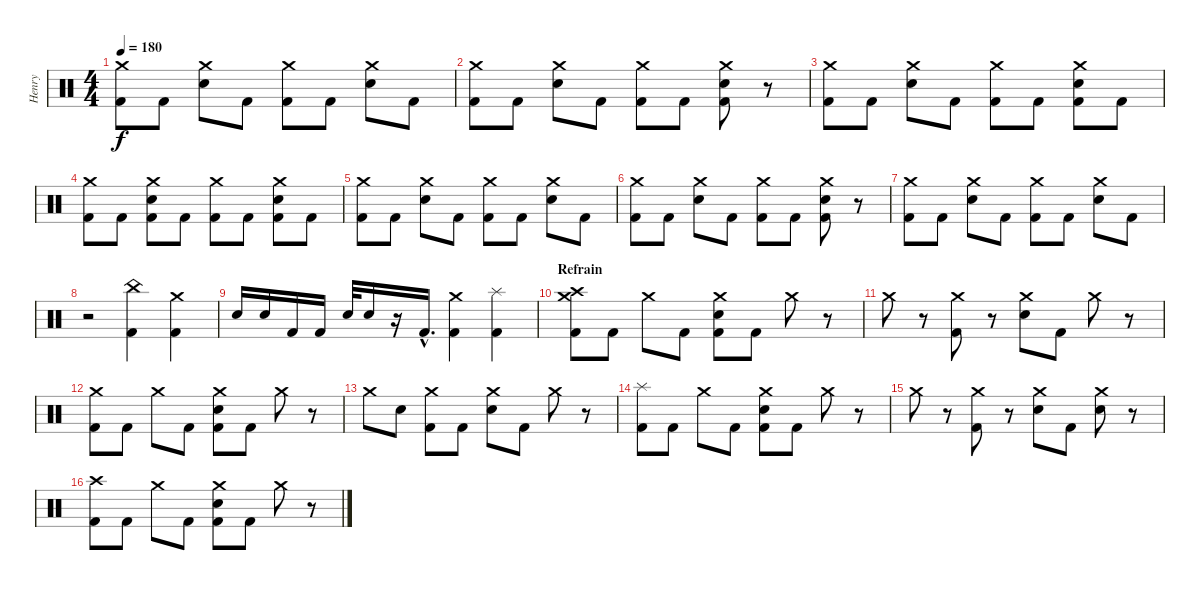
\track ("Henry" "Henry") {instrument percussion}
\staff {score}
\articulation defaults
\ts (4 4)
\tempo 180
\clef neutral
\ks c
("Crash medium (hit)" "Kick (hit) 2").8{dy f} "Kick (hit) 2".8 ("Crash medium (hit)" "Snare (hit) 2").8 "Kick (hit) 2".8 ("Crash medium (hit)" "Kick (hit) 2").8 "Kick (hit) 2".8 ("Crash medium (hit)" "Snare (hit) 2").8 "Kick (hit) 2".8 |
("Crash medium (hit)" "Kick (hit) 2").8 "Kick (hit) 2".8 ("Crash medium (hit)" "Snare (hit) 2").8 "Kick (hit) 2".8 ("Crash medium (hit)" "Kick (hit) 2").8 "Kick (hit) 2".8 ("Crash medium (hit)" "Snare (hit) 2" "Kick (hit) 2").8 r.8 |
("Crash medium (hit)" "Kick (hit) 2").8 "Kick (hit) 2".8 ("Crash medium (hit)" "Snare (hit) 2").8 "Kick (hit) 2".8 ("Crash medium (hit)" "Kick (hit) 2").8 "Kick (hit) 2".8 ("Crash medium (hit)" "Snare (hit) 2" "Kick (hit) 2").8 "Kick (hit) 2".8 |
("Crash medium (hit)" "Kick (hit) 2").8 "Kick (hit) 2".8 ("Crash medium (hit)" "Snare (hit) 2" "Kick (hit) 2").8 "Kick (hit) 2".8 ("Crash medium (hit)" "Kick (hit) 2").8 "Kick (hit) 2".8 ("Crash medium (hit)" "Snare (hit) 2" "Kick (hit) 2").8 "Kick (hit) 2".8 |
("Crash medium (hit)" "Kick (hit) 2").8 "Kick (hit) 2".8 ("Crash medium (hit)" "Snare (hit) 2").8 "Kick (hit) 2".8 ("Crash medium (hit)" "Kick (hit) 2").8 "Kick (hit) 2".8 ("Crash medium (hit)" "Snare (hit) 2").8 "Kick (hit) 2".8 |
("Crash medium (hit)" "Kick (hit) 2").8 "Kick (hit) 2".8 ("Crash medium (hit)" "Snare (hit) 2").8 "Kick (hit) 2".8 ("Crash medium (hit)" "Kick (hit) 2").8 "Kick (hit) 2".8 ("Crash medium (hit)" "Snare (hit) 2" "Kick (hit) 2").8 r.8 |
("Crash medium (hit)" "Kick (hit) 2").8 "Kick (hit) 2".8 ("Crash medium (hit)" "Snare (hit) 2").8 "Kick (hit) 2".8 ("Crash medium (hit)" "Kick (hit) 2").8 "Kick (hit) 2".8 ("Crash medium (hit)" "Snare (hit) 2").8 "Kick (hit) 2".8 |
r.2 ("China (hit)" "Kick (hit) 2").4 ("Crash medium (hit)" "Kick (hit) 2").4 |
"Snare (hit) 2".16 "Snare (hit) 2".16 "Kick (hit) 2".16 "Kick (hit) 2".16 "Snare (hit) 2".32 "Snare (hit) 2".16 r.16 "Kick (hit) 2"{hac}.16{d} ("Crash medium (hit)" "Kick (hit) 2").4 ("Splash (hit)" "Kick (hit) 2").4 |
\section ("" "Refrain")
("Crash high (hit)" "Crash medium (hit)" "Kick (hit) 2").8 "Kick (hit) 2".8 "Crash medium (hit)".8 "Kick (hit) 2".8 ("Crash medium (hit)" "Snare (hit) 2" "Kick (hit) 2").8 "Kick (hit) 2".8 "Crash medium (hit)".8 r.8 |
"Crash medium (hit)".8 r.8 ("Crash medium (hit)" "Kick (hit) 2").8 r.8 ("Crash medium (hit)" "Snare (hit) 2").8 "Kick (hit) 2".8 "Crash medium (hit)".8 r.8 |
("Crash medium (hit)" "Kick (hit) 2").8 "Kick (hit) 2".8 "Crash medium (hit)".8 "Kick (hit) 2".8 ("Crash medium (hit)" "Snare (hit) 2" "Kick (hit) 2").8 "Kick (hit) 2".8 "Crash medium (hit)".8 r.8 |
"Crash medium (hit)".8 "Snare (hit) 2".8 ("Crash medium (hit)" "Kick (hit) 2").8 "Kick (hit) 2".8 ("Crash medium (hit)" "Snare (hit) 2").8 "Kick (hit) 2".8 "Crash medium (hit)".8 r.8 |
("Splash (hit)" "Kick (hit) 2").8 "Kick (hit) 2".8 "Crash medium (hit)".8 "Kick (hit) 2".8 ("Crash medium (hit)" "Snare (hit) 2" "Kick (hit) 2").8 "Kick (hit) 2".8 "Crash medium (hit)".8 r.8 |
"Crash medium (hit)".8 r.8 ("Crash medium (hit)" "Kick (hit) 2").8 r.8 ("Crash medium (hit)" "Snare (hit) 2").8 "Kick (hit) 2".8 ("Crash medium (hit)" "Snare (hit) 2").8 r.8 |
("Crash high (hit)" "Kick (hit) 2").8 "Kick (hit) 2".8 "Crash medium (hit)".8 "Kick (hit) 2".8 ("Crash medium (hit)" "Snare (hit) 2" "Kick (hit) 2").8 "Kick (hit) 2".8 "Crash medium (hit)".8 r.8
